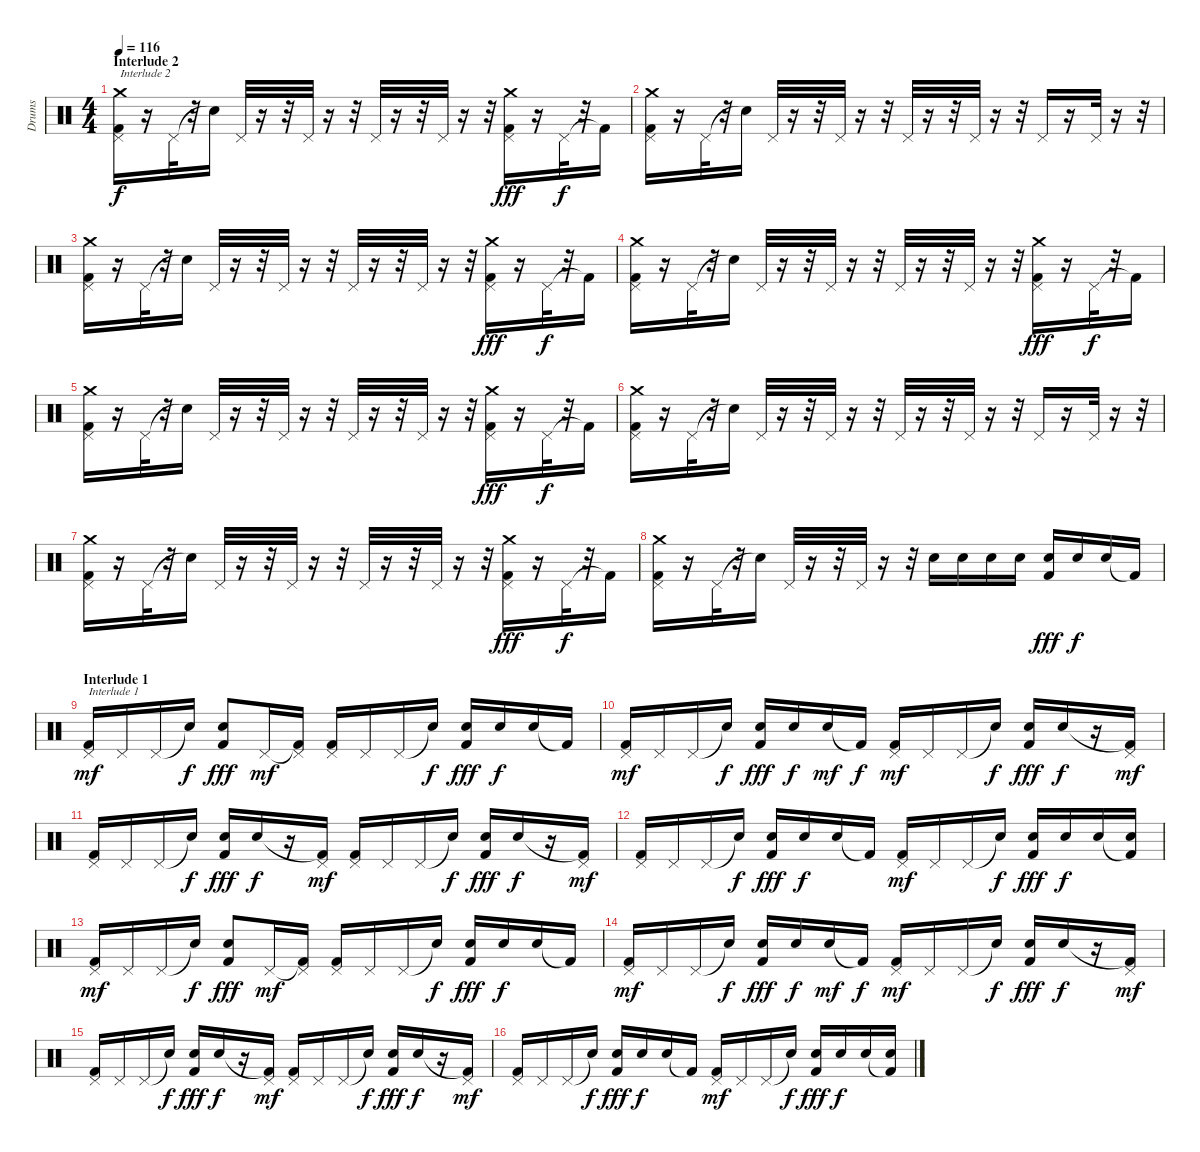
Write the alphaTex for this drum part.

\track ("Drums" "Drums") {instrument percussion}
\staff {score}
\articulation defaults
\ts (4 4)
\section ("" "Interlude 2")
\tempo 116
\clef neutral
\ks c
("Kick (hit) 2" "Pedal Hi-Hat (hit)" "Crash medium (hit)").16{txt "Interlude 2" dy f} r.16 "Pedal Hi-Hat (hit)".32 r.32 "Snare (hit)"{t}.16 "Pedal Hi-Hat (hit)".32 r.16 r.32 "Pedal Hi-Hat (hit)".32 r.16 r.32 "Pedal Hi-Hat (hit)".32 r.16 r.32 "Pedal Hi-Hat (hit)".32 r.16 r.32 ("Kick (hit) 2" "Pedal Hi-Hat (hit)" "Crash medium (hit)").16{dy fff} r.16 "Pedal Hi-Hat (hit)".32{dy f} r.32 "Kick (hit) 2"{t}.16 |
("Kick (hit) 2" "Pedal Hi-Hat (hit)" "Crash medium (hit)").16 r.16 "Pedal Hi-Hat (hit)".32 r.32 "Snare (hit)"{t}.16 "Pedal Hi-Hat (hit)".32 r.16 r.32 "Pedal Hi-Hat (hit)".32 r.16 r.32 "Pedal Hi-Hat (hit)".32 r.16 r.32 "Pedal Hi-Hat (hit)".32 r.16 r.32 "Pedal Hi-Hat (hit)".16 r.16 "Pedal Hi-Hat (hit)".32 r.16 r.32 |
("Kick (hit) 2" "Pedal Hi-Hat (hit)" "Crash medium (hit)").16 r.16 "Pedal Hi-Hat (hit)".32 r.32 "Snare (hit)"{t}.16 "Pedal Hi-Hat (hit)".32 r.16 r.32 "Pedal Hi-Hat (hit)".32 r.16 r.32 "Pedal Hi-Hat (hit)".32 r.16 r.32 "Pedal Hi-Hat (hit)".32 r.16 r.32 ("Kick (hit) 2" "Pedal Hi-Hat (hit)" "Crash medium (hit)").16{dy fff} r.16 "Pedal Hi-Hat (hit)".32{dy f} r.32 "Kick (hit) 2"{t}.16 |
("Kick (hit) 2" "Pedal Hi-Hat (hit)" "Crash medium (hit)").16 r.16 "Pedal Hi-Hat (hit)".32 r.32 "Snare (hit)"{t}.16 "Pedal Hi-Hat (hit)".32 r.16 r.32 "Pedal Hi-Hat (hit)".32 r.16 r.32 "Pedal Hi-Hat (hit)".32 r.16 r.32 "Pedal Hi-Hat (hit)".32 r.16 r.32 ("Kick (hit) 2" "Pedal Hi-Hat (hit)" "Crash medium (hit)").16{dy fff} r.16 "Pedal Hi-Hat (hit)".32{dy f} r.32 "Kick (hit) 2"{t}.16 |
("Kick (hit) 2" "Pedal Hi-Hat (hit)" "Crash medium (hit)").16 r.16 "Pedal Hi-Hat (hit)".32 r.32 "Snare (hit)"{t}.16 "Pedal Hi-Hat (hit)".32 r.16 r.32 "Pedal Hi-Hat (hit)".32 r.16 r.32 "Pedal Hi-Hat (hit)".32 r.16 r.32 "Pedal Hi-Hat (hit)".32 r.16 r.32 ("Kick (hit) 2" "Pedal Hi-Hat (hit)" "Crash medium (hit)").16{dy fff} r.16 "Pedal Hi-Hat (hit)".32{dy f} r.32 "Kick (hit) 2"{t}.16 |
("Kick (hit) 2" "Pedal Hi-Hat (hit)" "Crash medium (hit)").16 r.16 "Pedal Hi-Hat (hit)".32 r.32 "Snare (hit)"{t}.16 "Pedal Hi-Hat (hit)".32 r.16 r.32 "Pedal Hi-Hat (hit)".32 r.16 r.32 "Pedal Hi-Hat (hit)".32 r.16 r.32 "Pedal Hi-Hat (hit)".32 r.16 r.32 "Pedal Hi-Hat (hit)".16 r.16 "Pedal Hi-Hat (hit)".32 r.16 r.32 |
("Kick (hit) 2" "Pedal Hi-Hat (hit)" "Crash medium (hit)").16 r.16 "Pedal Hi-Hat (hit)".32 r.32 "Snare (hit)"{t}.16 "Pedal Hi-Hat (hit)".32 r.16 r.32 "Pedal Hi-Hat (hit)".32 r.16 r.32 "Pedal Hi-Hat (hit)".32 r.16 r.32 "Pedal Hi-Hat (hit)".32 r.16 r.32 ("Kick (hit) 2" "Pedal Hi-Hat (hit)" "Crash medium (hit)").16{dy fff} r.16 "Pedal Hi-Hat (hit)".32{dy f} r.32 "Kick (hit) 2"{t}.16 |
("Kick (hit) 2" "Pedal Hi-Hat (hit)" "Crash medium (hit)").16 r.16 "Pedal Hi-Hat (hit)".32 r.32 "Snare (hit)"{t}.16 "Pedal Hi-Hat (hit)".32 r.16 r.32 "Pedal Hi-Hat (hit)".32 r.16 r.32 "Electric Snare (hit)".16 "Electric Snare (hit)".16 "Electric Snare (hit)".16 "Electric Snare (hit)".16 ("Kick (hit) 2" "Electric Snare (hit)").16{dy fff} "Electric Snare (hit)".16{dy f} "Electric Snare (hit)".16 "Kick (hit) 2"{t}.16 |
\section ("" "Interlude 1")
("Kick (hit) 2" "Pedal Hi-Hat (hit)").16{txt "Interlude 1" dy mf} "Pedal Hi-Hat (hit)".16 "Pedal Hi-Hat (hit)".16 "Snare (hit)"{t}.16{dy f} ("Kick (hit) 2" "Electric Snare (hit)").8{dy fff} "Pedal Hi-Hat (hit)".16{dy mf} ("Kick (hit) 2"{t} "Pedal Hi-Hat (hit)").16 ("Kick (hit) 2" "Pedal Hi-Hat (hit)").16 "Pedal Hi-Hat (hit)".16 "Pedal Hi-Hat (hit)".16 "Snare (hit)"{t}.16{dy f} ("Kick (hit) 2" "Electric Snare (hit)").16{dy fff} "Electric Snare (hit)".16{dy f} "Electric Snare (hit)".16 "Kick (hit) 2"{t}.16 |
("Kick (hit) 2" "Pedal Hi-Hat (hit)").16{dy mf} "Pedal Hi-Hat (hit)".16 "Pedal Hi-Hat (hit)".16 "Snare (hit)"{t}.16{dy f} ("Kick (hit) 2" "Electric Snare (hit)").16{dy fff} "Electric Snare (hit)".16{dy f} "Electric Snare (hit)".16{dy mf} "Kick (hit) 2"{t}.16{dy f} ("Kick (hit) 2" "Pedal Hi-Hat (hit)").16{dy mf} "Pedal Hi-Hat (hit)".16 "Pedal Hi-Hat (hit)".16 "Snare (hit)"{t}.16{dy f} ("Kick (hit) 2" "Electric Snare (hit)").16{dy fff} "Electric Snare (hit)".16{dy f} r.16 ("Kick (hit) 2"{t} "Pedal Hi-Hat (hit)").16{dy mf} |
("Kick (hit) 2" "Pedal Hi-Hat (hit)").16 "Pedal Hi-Hat (hit)".16 "Pedal Hi-Hat (hit)".16 "Snare (hit)"{t}.16{dy f} ("Kick (hit) 2" "Electric Snare (hit)").16{dy fff} "Electric Snare (hit)".16{dy f} r.16 ("Kick (hit) 2"{t} "Pedal Hi-Hat (hit)").16{dy mf} ("Kick (hit) 2" "Pedal Hi-Hat (hit)").16 "Pedal Hi-Hat (hit)".16 "Pedal Hi-Hat (hit)".16 "Snare (hit)"{t}.16{dy f} ("Kick (hit) 2" "Electric Snare (hit)").16{dy fff} "Electric Snare (hit)".16{dy f} r.16 ("Kick (hit) 2"{t} "Pedal Hi-Hat (hit)").16{dy mf} |
("Kick (hit) 2" "Pedal Hi-Hat (hit)").16 "Pedal Hi-Hat (hit)".16 "Pedal Hi-Hat (hit)".16 "Snare (hit)"{t}.16{dy f} ("Kick (hit) 2" "Electric Snare (hit)").16{dy fff} "Electric Snare (hit)".16{dy f} "Electric Snare (hit)".16 "Kick (hit) 2"{t}.16 ("Kick (hit) 2" "Pedal Hi-Hat (hit)").16{dy mf} "Pedal Hi-Hat (hit)".16 "Pedal Hi-Hat (hit)".16 "Snare (hit)"{t}.16{dy f} ("Kick (hit) 2" "Electric Snare (hit)").16{dy fff} "Electric Snare (hit)".16{dy f} "Electric Snare (hit)".16 ("Kick (hit) 2"{t} "Electric Snare (hit)").16 |
("Kick (hit) 2" "Pedal Hi-Hat (hit)").16{dy mf} "Pedal Hi-Hat (hit)".16 "Pedal Hi-Hat (hit)".16 "Snare (hit)"{t}.16{dy f} ("Kick (hit) 2" "Electric Snare (hit)").8{dy fff} "Pedal Hi-Hat (hit)".16{dy mf} ("Kick (hit) 2"{t} "Pedal Hi-Hat (hit)").16 ("Kick (hit) 2" "Pedal Hi-Hat (hit)").16 "Pedal Hi-Hat (hit)".16 "Pedal Hi-Hat (hit)".16 "Snare (hit)"{t}.16{dy f} ("Kick (hit) 2" "Electric Snare (hit)").16{dy fff} "Electric Snare (hit)".16{dy f} "Electric Snare (hit)".16 "Kick (hit) 2"{t}.16 |
("Kick (hit) 2" "Pedal Hi-Hat (hit)").16{dy mf} "Pedal Hi-Hat (hit)".16 "Pedal Hi-Hat (hit)".16 "Snare (hit)"{t}.16{dy f} ("Kick (hit) 2" "Electric Snare (hit)").16{dy fff} "Electric Snare (hit)".16{dy f} "Electric Snare (hit)".16{dy mf} "Kick (hit) 2"{t}.16{dy f} ("Kick (hit) 2" "Pedal Hi-Hat (hit)").16{dy mf} "Pedal Hi-Hat (hit)".16 "Pedal Hi-Hat (hit)".16 "Snare (hit)"{t}.16{dy f} ("Kick (hit) 2" "Electric Snare (hit)").16{dy fff} "Electric Snare (hit)".16{dy f} r.16 ("Kick (hit) 2"{t} "Pedal Hi-Hat (hit)").16{dy mf} |
("Kick (hit) 2" "Pedal Hi-Hat (hit)").16 "Pedal Hi-Hat (hit)".16 "Pedal Hi-Hat (hit)".16 "Snare (hit)"{t}.16{dy f} ("Kick (hit) 2" "Electric Snare (hit)").16{dy fff} "Electric Snare (hit)".16{dy f} r.16 ("Kick (hit) 2"{t} "Pedal Hi-Hat (hit)").16{dy mf} ("Kick (hit) 2" "Pedal Hi-Hat (hit)").16 "Pedal Hi-Hat (hit)".16 "Pedal Hi-Hat (hit)".16 "Snare (hit)"{t}.16{dy f} ("Kick (hit) 2" "Electric Snare (hit)").16{dy fff} "Electric Snare (hit)".16{dy f} r.16 ("Kick (hit) 2"{t} "Pedal Hi-Hat (hit)").16{dy mf} |
("Kick (hit) 2" "Pedal Hi-Hat (hit)").16 "Pedal Hi-Hat (hit)".16 "Pedal Hi-Hat (hit)".16 "Snare (hit)"{t}.16{dy f} ("Kick (hit) 2" "Electric Snare (hit)").16{dy fff} "Electric Snare (hit)".16{dy f} "Electric Snare (hit)".16 "Kick (hit) 2"{t}.16 ("Kick (hit) 2" "Pedal Hi-Hat (hit)").16{dy mf} "Pedal Hi-Hat (hit)".16 "Pedal Hi-Hat (hit)".16 "Snare (hit)"{t}.16{dy f} ("Kick (hit) 2" "Electric Snare (hit)").16{dy fff} "Electric Snare (hit)".16{dy f} "Electric Snare (hit)".16 ("Kick (hit) 2"{t} "Electric Snare (hit)").16
